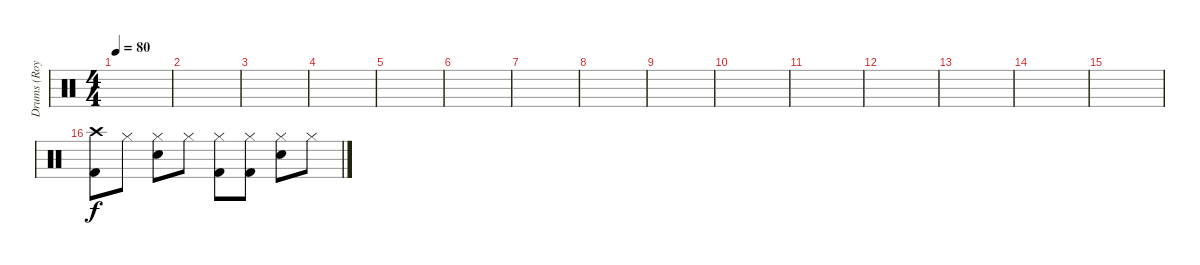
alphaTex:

\track ("Drums (Roy Mayorga)" "Drums (Roy") {instrument percussion}
\staff {score}
\articulation defaults
\ts (4 4)
\tempo 80
\clef neutral
\ks c
|
|
|
|
|
|
|
|
|
|
|
|
|
|
|
("Crash high (hit)" "Kick (hit) 2").8 "Hi-Hat (closed)".8 ("Hi-Hat (closed)" "Snare (hit) 2").8 "Hi-Hat (closed)".8 ("Hi-Hat (closed)" "Kick (hit) 2").8 ("Hi-Hat (closed)" "Kick (hit) 2").8 ("Hi-Hat (closed)" "Snare (hit) 2").8 "Hi-Hat (closed)".8
